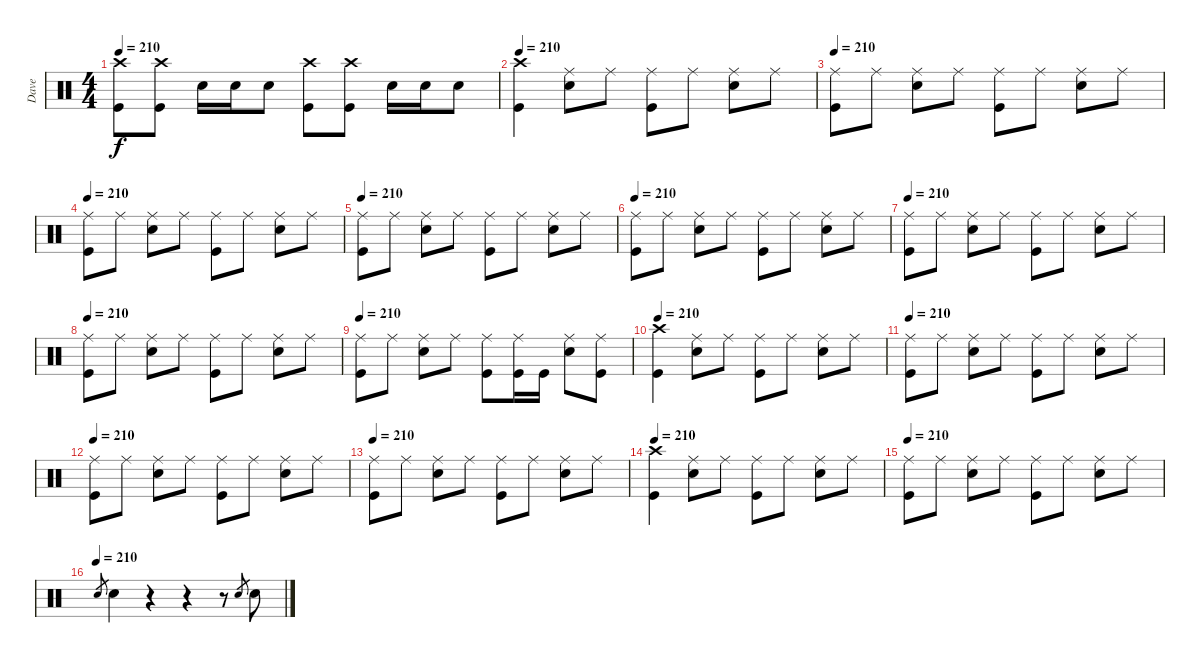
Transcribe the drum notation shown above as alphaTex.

\track ("Dave" "Dave") {instrument percussion}
\staff {score}
\articulation defaults
\ts (4 4)
\tempo 210
\clef neutral
\ks c
("Crash high (hit)" "Kick (hit)").8{dy f} ("Crash high (hit)" "Kick (hit)").8 "Snare (hit) 2".16 "Snare (hit) 2".16 "Snare (hit) 2".8 ("Crash high (hit)" "Kick (hit)").8 ("Crash high (hit)" "Kick (hit)").8 "Snare (hit) 2".16 "Snare (hit) 2".16 "Snare (hit) 2".8 |
\tempo 210
("Crash high (hit)" "Kick (hit)").4 ("Ride (middle)" "Snare (hit) 2").8 "Ride (middle)".8 ("Ride (middle)" "Kick (hit)").8 "Ride (middle)".8 ("Ride (middle)" "Snare (hit) 2").8 "Ride (middle)".8 |
\tempo 210
("Ride (middle)" "Kick (hit)").8 "Ride (middle)".8 ("Ride (middle)" "Snare (hit) 2").8 "Ride (middle)".8 ("Ride (middle)" "Kick (hit)").8 "Ride (middle)".8 ("Ride (middle)" "Snare (hit) 2").8 "Ride (middle)".8 |
\tempo 210
("Ride (middle)" "Kick (hit)").8 "Ride (middle)".8 ("Ride (middle)" "Snare (hit) 2").8 "Ride (middle)".8 ("Ride (middle)" "Kick (hit)").8 "Ride (middle)".8 ("Ride (middle)" "Snare (hit) 2").8 "Ride (middle)".8 |
\tempo 210
("Ride (middle)" "Kick (hit)").8 "Ride (middle)".8 ("Ride (middle)" "Snare (hit) 2").8 "Ride (middle)".8 ("Ride (middle)" "Kick (hit)").8 "Ride (middle)".8 ("Ride (middle)" "Snare (hit) 2").8 "Ride (middle)".8 |
\tempo 210
("Ride (middle)" "Kick (hit)").8 "Ride (middle)".8 ("Ride (middle)" "Snare (hit) 2").8 "Ride (middle)".8 ("Ride (middle)" "Kick (hit)").8 "Ride (middle)".8 ("Ride (middle)" "Snare (hit) 2").8 "Ride (middle)".8 |
\tempo 210
("Ride (middle)" "Kick (hit)").8 "Ride (middle)".8 ("Ride (middle)" "Snare (hit) 2").8 "Ride (middle)".8 ("Ride (middle)" "Kick (hit)").8 "Ride (middle)".8 ("Ride (middle)" "Snare (hit) 2").8 "Ride (middle)".8 |
\tempo 210
("Ride (middle)" "Kick (hit)").8 "Ride (middle)".8 ("Ride (middle)" "Snare (hit) 2").8 "Ride (middle)".8 ("Ride (middle)" "Kick (hit)").8 "Ride (middle)".8 ("Ride (middle)" "Snare (hit) 2").8 "Ride (middle)".8 |
\tempo 210
("Ride (middle)" "Kick (hit)").8 "Ride (middle)".8 ("Ride (middle)" "Snare (hit) 2").8 "Ride (middle)".8 ("Ride (middle)" "Kick (hit)").8 ("Ride (middle)" "Kick (hit)").16 "Kick (hit)".16 ("Ride (middle)" "Snare (hit) 2").8 ("Ride (middle)" "Kick (hit)").8 |
\tempo 210
("Crash high (hit)" "Kick (hit)").4 ("Ride (middle)" "Snare (hit) 2").8 "Ride (middle)".8 ("Ride (middle)" "Kick (hit)").8 "Ride (middle)".8 ("Ride (middle)" "Snare (hit) 2").8 "Ride (middle)".8 |
\tempo 210
("Ride (middle)" "Kick (hit)").8 "Ride (middle)".8 ("Ride (middle)" "Snare (hit) 2").8 "Ride (middle)".8 ("Ride (middle)" "Kick (hit)").8 "Ride (middle)".8 ("Ride (middle)" "Snare (hit) 2").8 "Ride (middle)".8 |
\tempo 210
("Ride (middle)" "Kick (hit)").8 "Ride (middle)".8 ("Ride (middle)" "Snare (hit) 2").8 "Ride (middle)".8 ("Ride (middle)" "Kick (hit)").8 "Ride (middle)".8 ("Ride (middle)" "Snare (hit) 2").8 "Ride (middle)".8 |
\tempo 210
("Ride (middle)" "Kick (hit)").8 "Ride (middle)".8 ("Ride (middle)" "Snare (hit) 2").8 "Ride (middle)".8 ("Ride (middle)" "Kick (hit)").8 "Ride (middle)".8 ("Ride (middle)" "Snare (hit) 2").8 "Ride (middle)".8 |
\tempo 210
("Crash high (hit)" "Kick (hit)").4 ("Ride (middle)" "Snare (hit) 2").8 "Ride (middle)".8 ("Ride (middle)" "Kick (hit)").8 "Ride (middle)".8 ("Ride (middle)" "Snare (hit) 2").8 "Ride (middle)".8 |
\tempo 210
("Ride (middle)" "Kick (hit)").8 "Ride (middle)".8 ("Ride (middle)" "Snare (hit) 2").8 "Ride (middle)".8 ("Ride (middle)" "Kick (hit)").8 "Ride (middle)".8 ("Ride (middle)" "Snare (hit) 2").8 "Ride (middle)".8 |
\tempo (210)
"Snare (hit) 2".8{gr} "Snare (hit) 2".4 r.4 r.4 r.8 "Snare (hit) 2".8{gr} "Snare (hit) 2".8
